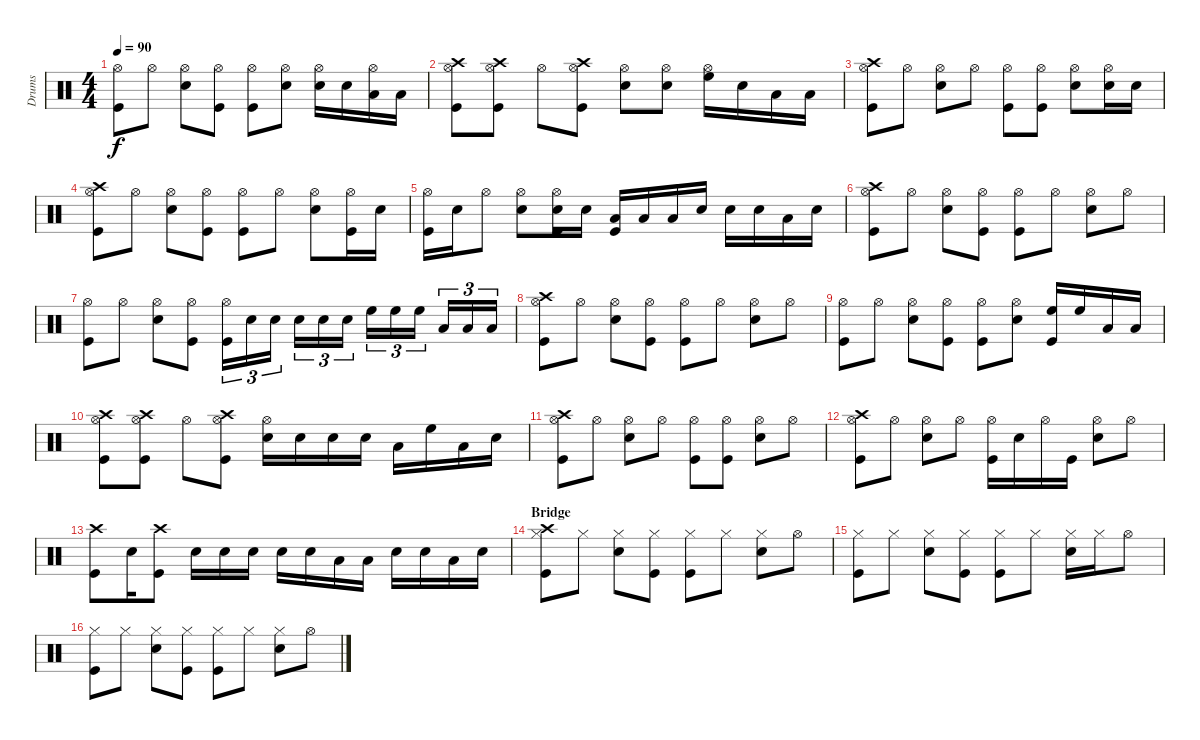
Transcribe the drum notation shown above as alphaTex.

\track ("Drums" "Drums") {instrument percussion}
\staff {score}
\articulation defaults
\ts (4 4)
\tempo 90
\clef neutral
\ks c
("Hi-Hat (open)" "Kick (hit)").8{dy f} "Hi-Hat (open)".8 ("Hi-Hat (open)" "Snare (hit) 2").8 ("Hi-Hat (open)" "Kick (hit)").8 ("Hi-Hat (open)" "Kick (hit)").8 ("Hi-Hat (open)" "Snare (hit) 2").8 ("Hi-Hat (open)" "Snare (hit) 2").16 "Snare (hit) 2".16 ("Hi-Hat (open)" "Low Tom (hit)").16 "Low Tom (hit)".16 |
("Hi-Hat (open)" "Crash high (hit)" "Kick (hit)").8 ("Hi-Hat (open)" "Crash high (hit)" "Kick (hit)").8 "Hi-Hat (open)".8 ("Hi-Hat (open)" "Crash high (hit)" "Kick (hit)").8 ("Hi-Hat (open)" "Snare (hit) 2").8 ("Hi-Hat (open)" "Snare (hit) 2").8 ("Hi-Hat (open)" "High Floor Tom (hit)").16 "Snare (hit) 2".16 "Low Tom (hit)".16 "Low Tom (hit)".16 |
("Hi-Hat (open)" "Crash high (hit)" "Kick (hit)").8 "Hi-Hat (open)".8 ("Hi-Hat (open)" "Snare (hit) 2").8 "Hi-Hat (open)".8 ("Hi-Hat (open)" "Kick (hit)").8 ("Hi-Hat (open)" "Kick (hit)").8 ("Hi-Hat (open)" "Snare (hit) 2").8 ("Hi-Hat (open)" "Snare (hit) 2").16 "Snare (hit) 2".16 |
("Hi-Hat (open)" "Crash high (hit)" "Kick (hit)").8 "Hi-Hat (open)".8 ("Hi-Hat (open)" "Snare (hit) 2").8 ("Hi-Hat (open)" "Kick (hit)").8 ("Hi-Hat (open)" "Kick (hit)").8 "Hi-Hat (open)".8 ("Hi-Hat (open)" "Snare (hit) 2").8 ("Hi-Hat (open)" "Kick (hit)").16 "Snare (hit) 2".16 |
("Hi-Hat (open)" "Kick (hit)").16 "Snare (hit) 2".16 "Hi-Hat (open)".8 ("Hi-Hat (open)" "Snare (hit) 2").8 ("Hi-Hat (open)" "Snare (hit) 2" "Kick (hit)").16 "Snare (hit) 2".16 ("Low Tom (hit)" "Kick (hit)").16 "Low Tom (hit)".16 "Low Tom (hit)".16 "Snare (hit) 2".16 "Snare (hit) 2".16 "Snare (hit) 2".16 "Low Tom (hit)".16 "Snare (hit) 2".16 |
("Hi-Hat (open)" "Crash high (hit)" "Kick (hit)").8 "Hi-Hat (open)".8 ("Hi-Hat (open)" "Snare (hit) 2").8 ("Hi-Hat (open)" "Kick (hit)").8 ("Hi-Hat (open)" "Kick (hit)").8 "Hi-Hat (open)".8 ("Hi-Hat (open)" "Snare (hit) 2").8 "Hi-Hat (open)".8 |
("Hi-Hat (open)" "Kick (hit)").8 "Hi-Hat (open)".8 ("Hi-Hat (open)" "Snare (hit) 2").8 ("Hi-Hat (open)" "Kick (hit)").8 ("Hi-Hat (open)" "Kick (hit)").16{tu (3 2)} "Snare (hit) 2".16{tu (3 2)} "Snare (hit) 2".16{tu (3 2)} "Snare (hit) 2".16{tu (3 2)} "Snare (hit) 2".16{tu (3 2)} "Snare (hit) 2".16{tu (3 2)} "High Floor Tom (hit)".16{tu (3 2)} "High Floor Tom (hit)".16{tu (3 2)} "High Floor Tom (hit)".16{tu (3 2)} "Low Tom (hit)".16{tu (3 2)} "Low Tom (hit)".16{tu (3 2)} "Low Tom (hit)".16{tu (3 2)} |
("Hi-Hat (open)" "Crash high (hit)" "Kick (hit)").8 "Hi-Hat (open)".8 ("Hi-Hat (open)" "Snare (hit) 2").8 ("Hi-Hat (open)" "Kick (hit)").8 ("Hi-Hat (open)" "Kick (hit)").8 "Hi-Hat (open)".8 ("Hi-Hat (open)" "Snare (hit) 2").8 "Hi-Hat (open)".8 |
("Hi-Hat (open)" "Kick (hit)").8 "Hi-Hat (open)".8 ("Hi-Hat (open)" "Snare (hit) 2").8 ("Hi-Hat (open)" "Kick (hit)").8 ("Hi-Hat (open)" "Kick (hit)").8 ("Hi-Hat (open)" "Snare (hit) 2").8 ("High Floor Tom (hit)" "Kick (hit)").16 "High Floor Tom (hit)".16 "Low Tom (hit)".16 "Low Tom (hit)".16 |
("Hi-Hat (open)" "Crash high (hit)" "Kick (hit)").8 ("Hi-Hat (open)" "Crash high (hit)" "Kick (hit)").8 "Hi-Hat (open)".8 ("Hi-Hat (open)" "Crash high (hit)" "Kick (hit)").8 ("Hi-Hat (open)" "Snare (hit) 2").16 "Snare (hit) 2".16 "Snare (hit) 2".16 "Snare (hit) 2".16 "Low Tom (hit)".16 "High Floor Tom (hit)".16 "Low Tom (hit)".16 "Snare (hit) 2".16 |
("Hi-Hat (open)" "Crash high (hit)" "Kick (hit)").8 "Hi-Hat (open)".8 ("Hi-Hat (open)" "Snare (hit) 2").8 "Hi-Hat (open)".8 ("Hi-Hat (open)" "Kick (hit)").8 ("Hi-Hat (open)" "Kick (hit)").8 ("Hi-Hat (open)" "Snare (hit) 2").8 "Hi-Hat (open)".8 |
("Hi-Hat (open)" "Crash high (hit)" "Kick (hit)").8 "Hi-Hat (open)".8 ("Hi-Hat (open)" "Snare (hit) 2").8 "Hi-Hat (open)".8 ("Hi-Hat (open)" "Kick (hit)").16 "Snare (hit) 2".16 "Hi-Hat (open)".16 "Kick (hit)".16 ("Hi-Hat (open)" "Snare (hit) 2").8 "Hi-Hat (open)".8 |
("Crash high (hit)" "Kick (hit)").8 "Snare (hit) 2".16 ("Crash high (hit)" "Kick (hit)").8 "Snare (hit) 2".16 "Snare (hit) 2".16 "Snare (hit) 2".16 "Snare (hit) 2".16 "Snare (hit) 2".16 "Low Tom (hit)".16 "Low Tom (hit)".16 "Snare (hit) 2".16 "Snare (hit) 2".16 "Low Tom (hit)".16 "Snare (hit) 2".16 |
\section ("" "Bridge")
("Hi-Hat (closed)" "Crash high (hit)" "Kick (hit)").8 "Hi-Hat (closed)".8 ("Hi-Hat (closed)" "Snare (hit) 2").8 ("Hi-Hat (closed)" "Kick (hit)").8 ("Hi-Hat (closed)" "Kick (hit)").8 "Hi-Hat (closed)".8 ("Hi-Hat (closed)" "Snare (hit) 2").8 "Hi-Hat (open)".8 |
("Hi-Hat (closed)" "Kick (hit)").8 "Hi-Hat (closed)".8 ("Hi-Hat (closed)" "Snare (hit) 2").8 ("Hi-Hat (closed)" "Kick (hit)").8 ("Hi-Hat (closed)" "Kick (hit)").8 "Hi-Hat (closed)".8 ("Hi-Hat (closed)" "Snare (hit) 2").16 "Hi-Hat (closed)".16 "Hi-Hat (open)".8 |
("Hi-Hat (closed)" "Kick (hit)").8 "Hi-Hat (closed)".8 ("Hi-Hat (closed)" "Snare (hit) 2").8 ("Hi-Hat (closed)" "Kick (hit)").8 ("Hi-Hat (closed)" "Kick (hit)").8 "Hi-Hat (closed)".8 ("Hi-Hat (closed)" "Snare (hit) 2").8 "Hi-Hat (open)".8
